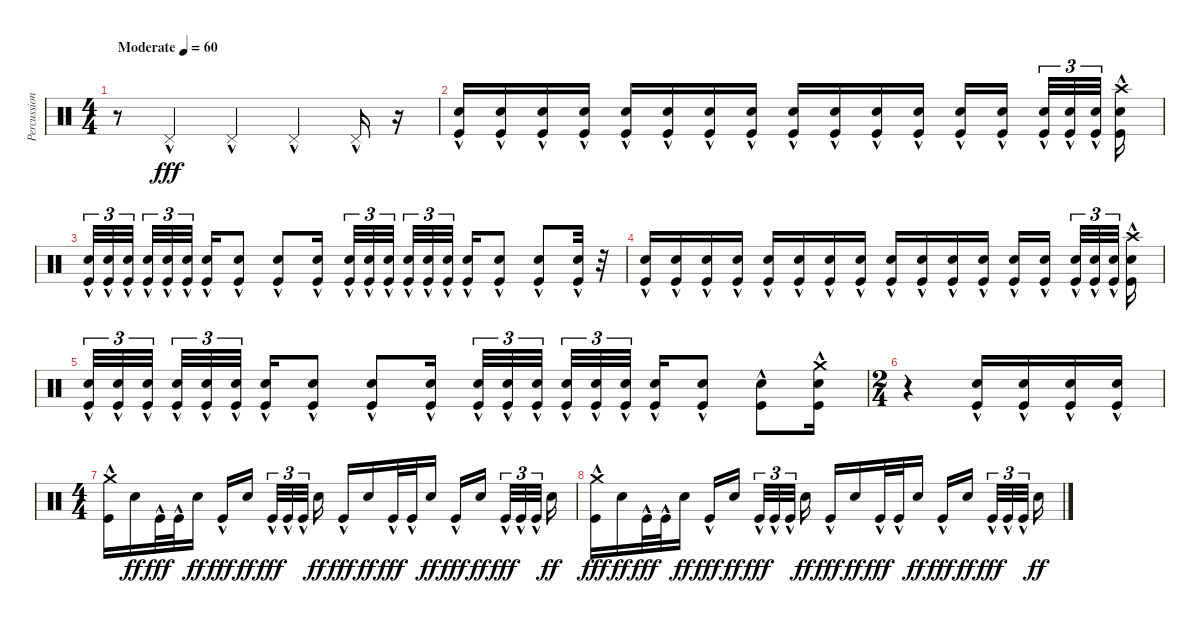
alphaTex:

\track ("Percussion" "Percussion") {instrument percussion}
\staff {score}
\articulation defaults
\ts (4 4)
\tempo (60 "Moderate")
\clef neutral
\ks c
r.8{dy fff} "Pedal Hi-Hat (hit)"{hac}.4 "Pedal Hi-Hat (hit)"{hac}.4 "Pedal Hi-Hat (hit)"{hac}.4 "Pedal Hi-Hat (hit)"{hac}.16 r.16{volume 0} |
("Electric Snare (hit)" "Kick (hit)"{hac}).16{volume 13} ("Electric Snare (hit)" "Kick (hit)"{hac}).16 ("Electric Snare (hit)" "Kick (hit)"{hac}).16 ("Electric Snare (hit)" "Kick (hit)"{hac}).16 ("Electric Snare (hit)" "Kick (hit)"{hac}).16 ("Electric Snare (hit)" "Kick (hit)"{hac}).16 ("Electric Snare (hit)" "Kick (hit)"{hac}).16 ("Electric Snare (hit)" "Kick (hit)"{hac}).16 ("Electric Snare (hit)" "Kick (hit)"{hac}).16 ("Electric Snare (hit)" "Kick (hit)"{hac}).16 ("Electric Snare (hit)" "Kick (hit)"{hac}).16 ("Electric Snare (hit)" "Kick (hit)"{hac}).16 ("Electric Snare (hit)" "Kick (hit)"{hac}).16 ("Electric Snare (hit)" "Kick (hit)"{hac}).16{beam splitsecondary} ("Electric Snare (hit)" "Kick (hit)"{hac}).32{tu (3 2)} ("Electric Snare (hit)" "Kick (hit)"{hac}).32{tu (3 2)} ("Electric Snare (hit)" "Kick (hit)"{hac}).32{tu (3 2) beam splitsecondary} ("Crash high (hit)" "Electric Snare (hit)" "Kick (hit)"{hac}).16 |
("Electric Snare (hit)" "Kick (hit)"{hac}).32{tu (3 2)} ("Electric Snare (hit)" "Kick (hit)"{hac}).32{tu (3 2)} ("Electric Snare (hit)" "Kick (hit)"{hac}).32{tu (3 2) beam splitsecondary} ("Electric Snare (hit)" "Kick (hit)"{hac}).32{tu (3 2)} ("Electric Snare (hit)" "Kick (hit)"{hac}).32{tu (3 2)} ("Electric Snare (hit)" "Kick (hit)"{hac}).32{tu (3 2) beam splitsecondary} ("Electric Snare (hit)" "Kick (hit)"{hac}).16 ("Electric Snare (hit)" "Kick (hit)"{hac}).8 ("Electric Snare (hit)" "Kick (hit)"{hac}).8 ("Electric Snare (hit)" "Kick (hit)"{hac}).16 ("Electric Snare (hit)" "Kick (hit)"{hac}).32{tu (3 2)} ("Electric Snare (hit)" "Kick (hit)"{hac}).32{tu (3 2)} ("Electric Snare (hit)" "Kick (hit)"{hac}).32{tu (3 2) beam splitsecondary} ("Electric Snare (hit)" "Kick (hit)"{hac}).32{tu (3 2)} ("Electric Snare (hit)" "Kick (hit)"{hac}).32{tu (3 2)} ("Electric Snare (hit)" "Kick (hit)"{hac}).32{tu (3 2) beam splitsecondary} ("Electric Snare (hit)" "Kick (hit)"{hac}).16 ("Electric Snare (hit)" "Kick (hit)"{hac}).8 ("Electric Snare (hit)" "Kick (hit)"{hac}).8 ("Electric Snare (hit)" "Kick (hit)"{hac}).32 r.32{volume 0} |
("Electric Snare (hit)" "Kick (hit)"{hac}).16{volume 13} ("Electric Snare (hit)" "Kick (hit)"{hac}).16 ("Electric Snare (hit)" "Kick (hit)"{hac}).16 ("Electric Snare (hit)" "Kick (hit)"{hac}).16 ("Electric Snare (hit)" "Kick (hit)"{hac}).16 ("Electric Snare (hit)" "Kick (hit)"{hac}).16 ("Electric Snare (hit)" "Kick (hit)"{hac}).16 ("Electric Snare (hit)" "Kick (hit)"{hac}).16 ("Electric Snare (hit)" "Kick (hit)"{hac}).16 ("Electric Snare (hit)" "Kick (hit)"{hac}).16 ("Electric Snare (hit)" "Kick (hit)"{hac}).16 ("Electric Snare (hit)" "Kick (hit)"{hac}).16 ("Electric Snare (hit)" "Kick (hit)"{hac}).16 ("Electric Snare (hit)" "Kick (hit)"{hac}).16{beam splitsecondary} ("Electric Snare (hit)" "Kick (hit)"{hac}).32{tu (3 2)} ("Electric Snare (hit)" "Kick (hit)"{hac}).32{tu (3 2)} ("Electric Snare (hit)" "Kick (hit)"{hac}).32{tu (3 2) beam splitsecondary} ("Crash high (hit)" "Electric Snare (hit)" "Kick (hit)"{hac}).16 |
("Electric Snare (hit)" "Kick (hit)"{hac}).32{tu (3 2)} ("Electric Snare (hit)" "Kick (hit)"{hac}).32{tu (3 2)} ("Electric Snare (hit)" "Kick (hit)"{hac}).32{tu (3 2) beam splitsecondary} ("Electric Snare (hit)" "Kick (hit)"{hac}).32{tu (3 2)} ("Electric Snare (hit)" "Kick (hit)"{hac}).32{tu (3 2)} ("Electric Snare (hit)" "Kick (hit)"{hac}).32{tu (3 2) beam splitsecondary} ("Electric Snare (hit)" "Kick (hit)"{hac}).16 ("Electric Snare (hit)" "Kick (hit)"{hac}).8 ("Electric Snare (hit)" "Kick (hit)"{hac}).8 ("Electric Snare (hit)" "Kick (hit)"{hac}).16 ("Electric Snare (hit)" "Kick (hit)"{hac}).32{tu (3 2)} ("Electric Snare (hit)" "Kick (hit)"{hac}).32{tu (3 2)} ("Electric Snare (hit)" "Kick (hit)"{hac}).32{tu (3 2) beam splitsecondary} ("Electric Snare (hit)" "Kick (hit)"{hac}).32{tu (3 2)} ("Electric Snare (hit)" "Kick (hit)"{hac}).32{tu (3 2)} ("Electric Snare (hit)" "Kick (hit)"{hac}).32{tu (3 2) beam splitsecondary} ("Electric Snare (hit)" "Kick (hit)"{hac}).16 ("Electric Snare (hit)" "Kick (hit)"{hac}).8 ("Electric Snare (hit)" "Kick (hit)"{hac}).8 ("Crash medium (hit)" "Electric Snare (hit)" "Kick (hit)"{hac}).16 |
\ts (2 4)
r.4 ("Electric Snare (hit)" "Kick (hit)"{hac}).16 ("Electric Snare (hit)" "Kick (hit)"{hac}).16 ("Electric Snare (hit)" "Kick (hit)"{hac}).16 ("Electric Snare (hit)" "Kick (hit)"{hac}).16 |
\ts (4 4)
("Crash medium (hit)" "Kick (hit)"{hac}).16 "Electric Snare (hit)".16{dy ff} "Kick (hit)"{hac}.32{dy fff} "Kick (hit)"{hac}.32 "Electric Snare (hit)".16{dy ff} "Kick (hit)"{hac}.16{dy fff} "Electric Snare (hit)".16{dy ff beam splitsecondary} "Kick (hit)"{hac}.32{tu (3 2) dy fff} "Kick (hit)"{hac}.32{tu (3 2)} "Kick (hit)"{hac}.32{tu (3 2) beam splitsecondary} "Electric Snare (hit)".16{dy ff} "Kick (hit)"{hac}.16{dy fff} "Electric Snare (hit)".16{dy ff} "Kick (hit)"{hac}.32{dy fff} "Kick (hit)"{hac}.32 "Electric Snare (hit)".16{dy ff} "Kick (hit)"{hac}.16{dy fff} "Electric Snare (hit)".16{dy ff beam splitsecondary} "Kick (hit)"{hac}.32{tu (3 2) dy fff} "Kick (hit)"{hac}.32{tu (3 2)} "Kick (hit)"{hac}.32{tu (3 2) beam splitsecondary} "Electric Snare (hit)".16{dy ff} |
("Crash medium (hit)" "Kick (hit)"{hac}).16{dy fff} "Electric Snare (hit)".16{dy ff} "Kick (hit)"{hac}.32{dy fff} "Kick (hit)"{hac}.32 "Electric Snare (hit)".16{dy ff} "Kick (hit)"{hac}.16{dy fff} "Electric Snare (hit)".16{dy ff beam splitsecondary} "Kick (hit)"{hac}.32{tu (3 2) dy fff} "Kick (hit)"{hac}.32{tu (3 2)} "Kick (hit)"{hac}.32{tu (3 2) beam splitsecondary} "Electric Snare (hit)".16{dy ff} "Kick (hit)"{hac}.16{dy fff} "Electric Snare (hit)".16{dy ff} "Kick (hit)"{hac}.32{dy fff} "Kick (hit)"{hac}.32 "Electric Snare (hit)".16{dy ff} "Kick (hit)"{hac}.16{dy fff} "Electric Snare (hit)".16{dy ff beam splitsecondary} "Kick (hit)"{hac}.32{tu (3 2) dy fff} "Kick (hit)"{hac}.32{tu (3 2)} "Kick (hit)"{hac}.32{tu (3 2) beam splitsecondary} "Electric Snare (hit)".16{dy ff}
